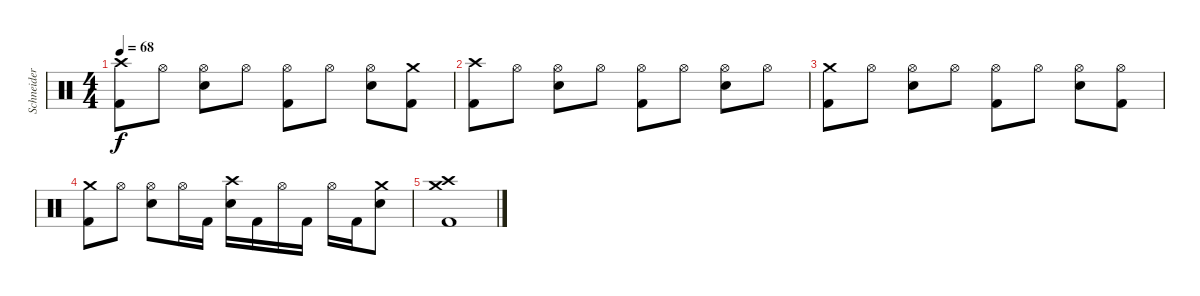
\track ("Schneider" "Schneider") {instrument percussion}
\staff {score}
\articulation defaults
\ts (4 4)
\tempo 68
\clef neutral
\ks c
("Crash high (hit)" "Kick (hit) 2").8{dy f} "Hi-Hat (open)".8 ("Hi-Hat (open)" "Electric Snare (hit)").8 "Hi-Hat (open)".8 ("Hi-Hat (open)" "Kick (hit) 2").8 "Hi-Hat (open)".8 ("Hi-Hat (open)" "Electric Snare (hit)").8 ("Crash medium (hit)" "Kick (hit) 2").8 |
("Crash high (hit)" "Kick (hit) 2").8 "Hi-Hat (open)".8 ("Hi-Hat (open)" "Electric Snare (hit)").8 "Hi-Hat (open)".8 ("Hi-Hat (open)" "Kick (hit) 2").8 "Hi-Hat (open)".8 ("Hi-Hat (open)" "Electric Snare (hit)").8 "Hi-Hat (open)".8 |
("Crash medium (hit)" "Kick (hit) 2").8 "Hi-Hat (open)".8 ("Hi-Hat (open)" "Electric Snare (hit)").8 "Hi-Hat (open)".8 ("Hi-Hat (open)" "Kick (hit) 2").8 "Hi-Hat (open)".8 ("Hi-Hat (open)" "Electric Snare (hit)").8 ("Hi-Hat (open)" "Kick (hit) 2").8 |
("Crash medium (hit)" "Kick (hit) 2").8 "Hi-Hat (open)".8 ("Hi-Hat (open)" "Electric Snare (hit)").8 "Hi-Hat (open)".16 "Kick (hit) 2".16 ("Crash high (hit)" "Electric Snare (hit)").16 "Kick (hit) 2".16 "Hi-Hat (open)".16 "Kick (hit) 2".16 "Hi-Hat (open)".16 "Kick (hit) 2".16 ("Crash medium (hit)" "Electric Snare (hit)").8 |
("Crash medium (hit)" "Crash high (hit)" "Kick (hit) 2").1
